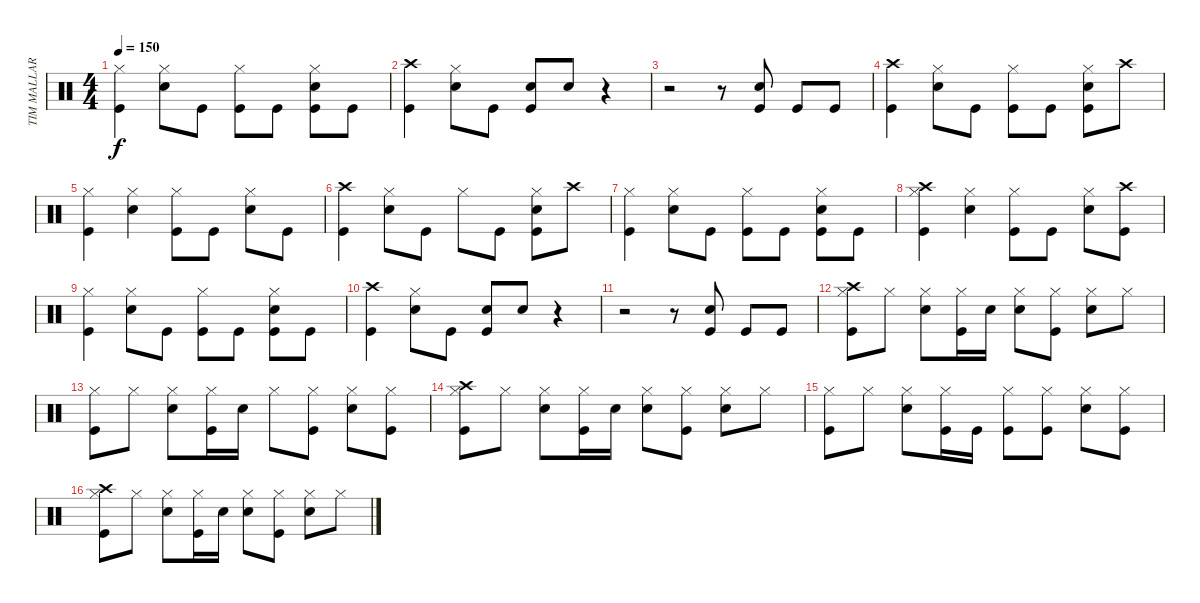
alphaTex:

\track ("TIM MALLARE - drums" "TIM MALLAR") {instrument percussion}
\staff {score}
\articulation defaults
\ts (4 4)
\tempo 150
\clef neutral
\ks c
("Hi-Hat (closed)" "Kick (hit)").4{dy f} ("Hi-Hat (closed)" "Electric Snare (hit)").8 "Kick (hit)".8 ("Hi-Hat (closed)" "Kick (hit)").8 "Kick (hit)".8 ("Hi-Hat (closed)" "Electric Snare (hit)" "Kick (hit)").8 "Kick (hit)".8 |
("Crash high (hit)" "Kick (hit)").4 ("Hi-Hat (closed)" "Electric Snare (hit)").8 "Kick (hit)".8 ("Electric Snare (hit)" "Kick (hit)").8 "Electric Snare (hit)".8 r.4 |
r.2 r.8 ("Electric Snare (hit)" "Kick (hit)").8 "Kick (hit)".8 "Kick (hit)".8 |
("Crash high (hit)" "Kick (hit)").4 ("Hi-Hat (closed)" "Electric Snare (hit)").8 "Kick (hit)".8 ("Hi-Hat (closed)" "Kick (hit)").8 "Kick (hit)".8 ("Hi-Hat (closed)" "Electric Snare (hit)" "Kick (hit)").8 "Crash high (hit)".8 |
("Hi-Hat (closed)" "Kick (hit)").4 ("Hi-Hat (closed)" "Electric Snare (hit)").4 ("Hi-Hat (closed)" "Kick (hit)").8 "Kick (hit)".8 ("Hi-Hat (closed)" "Electric Snare (hit)").8 "Kick (hit)".8 |
("Crash high (hit)" "Kick (hit)").4 ("Hi-Hat (closed)" "Electric Snare (hit)").8 "Kick (hit)".8 "Hi-Hat (closed)".8 "Kick (hit)".8 ("Hi-Hat (closed)" "Electric Snare (hit)" "Kick (hit)").8 "Crash high (hit)".8 |
("Hi-Hat (closed)" "Kick (hit)").4 ("Hi-Hat (closed)" "Electric Snare (hit)").8 "Kick (hit)".8 ("Hi-Hat (closed)" "Kick (hit)").8 "Kick (hit)".8 ("Hi-Hat (closed)" "Electric Snare (hit)" "Kick (hit)").8 "Kick (hit)".8 |
("Crash high (hit)" "Hi-Hat (closed)" "Kick (hit)").4 ("Hi-Hat (closed)" "Electric Snare (hit)").4 ("Hi-Hat (closed)" "Kick (hit)").8 "Kick (hit)".8 ("Hi-Hat (closed)" "Electric Snare (hit)").8 ("Crash high (hit)" "Kick (hit)").8 |
("Hi-Hat (closed)" "Kick (hit)").4 ("Hi-Hat (closed)" "Electric Snare (hit)").8 "Kick (hit)".8 ("Hi-Hat (closed)" "Kick (hit)").8 "Kick (hit)".8 ("Hi-Hat (closed)" "Electric Snare (hit)" "Kick (hit)").8 "Kick (hit)".8 |
("Crash high (hit)" "Kick (hit)").4 ("Hi-Hat (closed)" "Electric Snare (hit)").8 "Kick (hit)".8 ("Electric Snare (hit)" "Kick (hit)").8 "Electric Snare (hit)".8 r.4 |
r.2 r.8 ("Electric Snare (hit)" "Kick (hit)").8 "Kick (hit)".8 "Kick (hit)".8 |
("Crash high (hit)" "Hi-Hat (closed)" "Kick (hit)").8 "Hi-Hat (closed)".8 ("Hi-Hat (closed)" "Electric Snare (hit)").8 ("Hi-Hat (closed)" "Kick (hit)").16 "Electric Snare (hit)".16 ("Hi-Hat (closed)" "Electric Snare (hit)").8 ("Hi-Hat (closed)" "Kick (hit)").8 ("Hi-Hat (closed)" "Electric Snare (hit)").8 "Hi-Hat (closed)".8 |
("Hi-Hat (closed)" "Kick (hit)").8 "Hi-Hat (closed)".8 ("Hi-Hat (closed)" "Electric Snare (hit)").8 ("Hi-Hat (closed)" "Kick (hit)").16 "Electric Snare (hit)".16 "Hi-Hat (closed)".8 ("Hi-Hat (closed)" "Kick (hit)").8 ("Hi-Hat (closed)" "Electric Snare (hit)").8 ("Hi-Hat (closed)" "Kick (hit)").8 |
("Crash high (hit)" "Hi-Hat (closed)" "Kick (hit)").8 "Hi-Hat (closed)".8 ("Hi-Hat (closed)" "Electric Snare (hit)").8 ("Hi-Hat (closed)" "Kick (hit)").16 "Electric Snare (hit)".16 ("Hi-Hat (closed)" "Electric Snare (hit)").8 ("Hi-Hat (closed)" "Kick (hit)").8 ("Hi-Hat (closed)" "Electric Snare (hit)").8 "Hi-Hat (closed)".8 |
("Hi-Hat (closed)" "Kick (hit)").8 "Hi-Hat (closed)".8 ("Hi-Hat (closed)" "Electric Snare (hit)").8 ("Hi-Hat (closed)" "Kick (hit)").16 "Kick (hit)".16 ("Hi-Hat (closed)" "Kick (hit)").8 ("Hi-Hat (closed)" "Kick (hit)").8 ("Hi-Hat (closed)" "Electric Snare (hit)").8 ("Hi-Hat (closed)" "Kick (hit)").8 |
("Crash high (hit)" "Hi-Hat (closed)" "Kick (hit)").8 "Hi-Hat (closed)".8 ("Hi-Hat (closed)" "Electric Snare (hit)").8 ("Hi-Hat (closed)" "Kick (hit)").16 "Electric Snare (hit)".16 ("Hi-Hat (closed)" "Electric Snare (hit)").8 ("Hi-Hat (closed)" "Kick (hit)").8 ("Hi-Hat (closed)" "Electric Snare (hit)").8 "Hi-Hat (closed)".8
